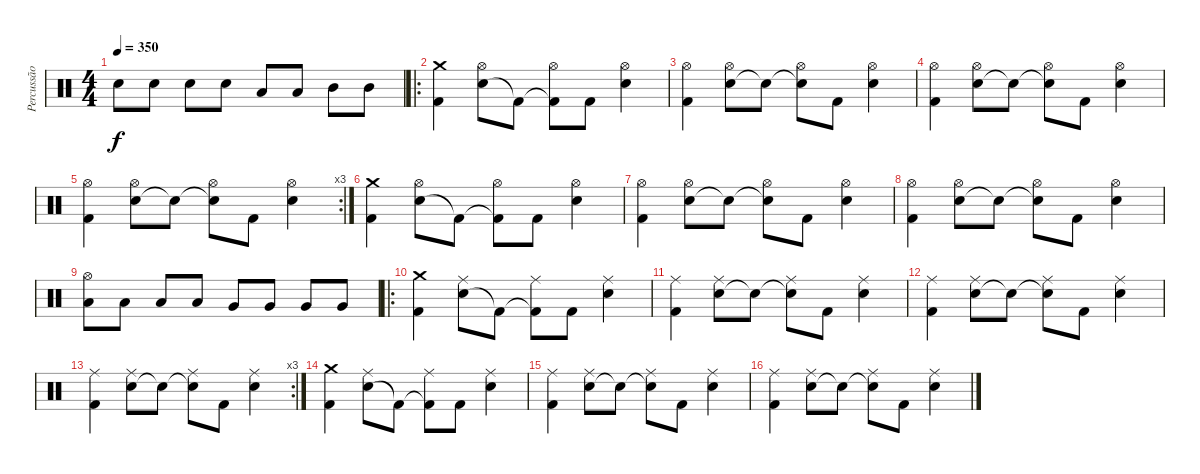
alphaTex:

\track ("Percussão" "Percussão") {instrument percussion}
\staff {score}
\articulation defaults
\ts (4 4)
\tempo 350
\clef neutral
\ks c "Electric Snare (hit)".8{dy f} "Electric Snare (hit)".8 "Electric Snare (hit)".8 "Electric Snare (hit)".8 "Low Tom (hit)".8 "Low Tom (hit)".8 "Mid Tom (hit)".8 "Mid Tom (hit)".8
|
\ro
("Kick (hit) 2" "Crash medium (hit)").4{volume 13} ("Electric Snare (hit)" "Hi-Hat (open)").8 "Kick (hit) 2"{t}.8 ("Kick (hit) 2"{t} "Hi-Hat (open)").8 "Kick (hit) 2".8 ("Electric Snare (hit)" "Hi-Hat (open)").4 |
("Kick (hit) 2" "Hi-Hat (open)").4 ("Electric Snare (hit)" "Hi-Hat (open)").8 "Snare (hit)"{t}.8 ("Snare (hit)"{t} "Hi-Hat (open)").8 "Kick (hit) 2".8 ("Electric Snare (hit)" "Hi-Hat (open)").4 |
("Kick (hit) 2" "Hi-Hat (open)").4 ("Electric Snare (hit)" "Hi-Hat (open)").8 "Snare (hit)"{t}.8 ("Snare (hit)"{t} "Hi-Hat (open)").8 "Kick (hit) 2".8 ("Electric Snare (hit)" "Hi-Hat (open)").4 |
\rc 3
("Kick (hit) 2" "Hi-Hat (open)").4 ("Electric Snare (hit)" "Hi-Hat (open)").8 "Snare (hit)"{t}.8 ("Snare (hit)"{t} "Hi-Hat (open)").8 "Kick (hit) 2".8 ("Electric Snare (hit)" "Hi-Hat (open)").4 |
("Kick (hit) 2" "Crash medium (hit)").4{volume 13} ("Electric Snare (hit)" "Hi-Hat (open)").8 "Kick (hit) 2"{t}.8 ("Kick (hit) 2"{t} "Hi-Hat (open)").8 "Kick (hit) 2".8 ("Electric Snare (hit)" "Hi-Hat (open)").4 |
("Kick (hit) 2" "Hi-Hat (open)").4 ("Electric Snare (hit)" "Hi-Hat (open)").8 "Snare (hit)"{t}.8 ("Snare (hit)"{t} "Hi-Hat (open)").8 "Kick (hit) 2".8 ("Electric Snare (hit)" "Hi-Hat (open)").4 |
("Kick (hit) 2" "Hi-Hat (open)").4 ("Electric Snare (hit)" "Hi-Hat (open)").8 "Snare (hit)"{t}.8 ("Snare (hit)"{t} "Hi-Hat (open)").8 "Kick (hit) 2".8 ("Electric Snare (hit)" "Hi-Hat (open)").4 |
("Low Tom (hit)" "Hi-Hat (open)").8 "Low Tom (hit)".8 "Low Tom (hit)".8 "Low Tom (hit)".8 "Very Low Tom (hit)".8 "Very Low Tom (hit)".8 "Very Low Tom (hit)".8 "Very Low Tom (hit)".8 |
\ro
("Kick (hit) 2" "Crash medium (hit)").4 ("Electric Snare (hit)" "Ride (middle)").8 "Kick (hit) 2"{t}.8 ("Kick (hit) 2"{t} "Ride (middle)").8 "Kick (hit) 2".8 ("Electric Snare (hit)" "Ride (middle)").4 |
("Kick (hit) 2" "Ride (middle)").4 ("Electric Snare (hit)" "Ride (middle)").8 "Snare (hit)"{t}.8 ("Snare (hit)"{t} "Ride (middle)").8 "Kick (hit) 2".8 ("Electric Snare (hit)" "Ride (middle)").4 |
("Kick (hit) 2" "Ride (middle)").4 ("Electric Snare (hit)" "Ride (middle)").8 "Snare (hit)"{t}.8 ("Snare (hit)"{t} "Ride (middle)").8 "Kick (hit) 2".8 ("Electric Snare (hit)" "Ride (middle)").4 |
\rc 3
("Kick (hit) 2" "Ride (middle)").4 ("Electric Snare (hit)" "Ride (middle)").8 "Snare (hit)"{t}.8 ("Snare (hit)"{t} "Ride (middle)").8 "Kick (hit) 2".8 ("Electric Snare (hit)" "Ride (middle)").4 |
("Kick (hit) 2" "Crash medium (hit)").4 ("Electric Snare (hit)" "Ride (middle)").8 "Kick (hit) 2"{t}.8 ("Kick (hit) 2"{t} "Ride (middle)").8 "Kick (hit) 2".8 ("Electric Snare (hit)" "Ride (middle)").4 |
("Kick (hit) 2" "Ride (middle)").4 ("Electric Snare (hit)" "Ride (middle)").8 "Snare (hit)"{t}.8 ("Snare (hit)"{t} "Ride (middle)").8 "Kick (hit) 2".8 ("Electric Snare (hit)" "Ride (middle)").4 |
("Kick (hit) 2" "Ride (middle)").4 ("Electric Snare (hit)" "Ride (middle)").8 "Snare (hit)"{t}.8 ("Snare (hit)"{t} "Ride (middle)").8 "Kick (hit) 2".8 ("Electric Snare (hit)" "Ride (middle)").4
